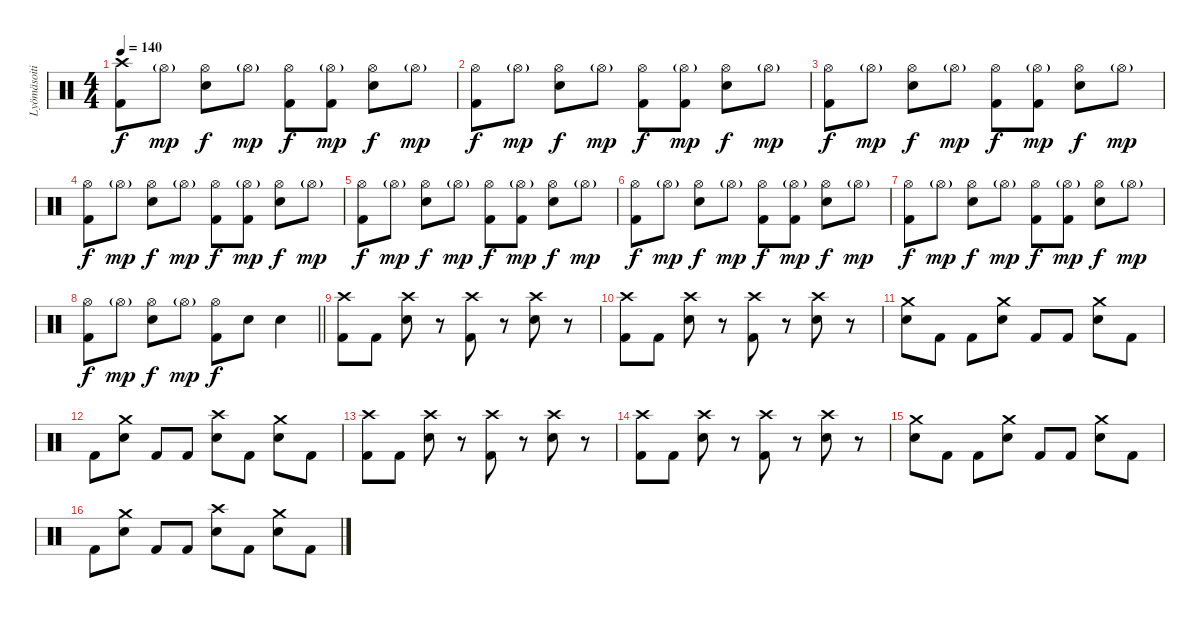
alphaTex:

\track ("Lyömäsoitin" "Lyömäsoiti") {instrument percussion}
\staff {score}
\articulation defaults
\ts (4 4)
\tempo 140
\clef neutral
\ks c
("Crash high (hit)" "Kick (hit) 2").8{dy f} "Hi-Hat (open)"{g}.8{dy mp} ("Hi-Hat (open)" "Electric Snare (hit)").8{dy f} "Hi-Hat (open)"{g}.8{dy mp} ("Hi-Hat (open)" "Kick (hit) 2").8{dy f} ("Hi-Hat (open)"{g} "Kick (hit) 2").8{dy mp} ("Hi-Hat (open)" "Electric Snare (hit)").8{dy f} "Hi-Hat (open)"{g}.8{dy mp} |
("Hi-Hat (open)" "Kick (hit) 2").8{dy f} "Hi-Hat (open)"{g}.8{dy mp} ("Hi-Hat (open)" "Electric Snare (hit)").8{dy f} "Hi-Hat (open)"{g}.8{dy mp} ("Hi-Hat (open)" "Kick (hit) 2").8{dy f} ("Hi-Hat (open)"{g} "Kick (hit) 2").8{dy mp} ("Hi-Hat (open)" "Electric Snare (hit)").8{dy f} "Hi-Hat (open)"{g}.8{dy mp} |
("Hi-Hat (open)" "Kick (hit) 2").8{dy f} "Hi-Hat (open)"{g}.8{dy mp} ("Hi-Hat (open)" "Electric Snare (hit)").8{dy f} "Hi-Hat (open)"{g}.8{dy mp} ("Hi-Hat (open)" "Kick (hit) 2").8{dy f} ("Hi-Hat (open)"{g} "Kick (hit) 2").8{dy mp} ("Hi-Hat (open)" "Electric Snare (hit)").8{dy f} "Hi-Hat (open)"{g}.8{dy mp} |
("Hi-Hat (open)" "Kick (hit) 2").8{dy f} "Hi-Hat (open)"{g}.8{dy mp} ("Hi-Hat (open)" "Electric Snare (hit)").8{dy f} "Hi-Hat (open)"{g}.8{dy mp} ("Hi-Hat (open)" "Kick (hit) 2").8{dy f} ("Hi-Hat (open)"{g} "Kick (hit) 2").8{dy mp} ("Hi-Hat (open)" "Electric Snare (hit)").8{dy f} "Hi-Hat (open)"{g}.8{dy mp} |
("Hi-Hat (open)" "Kick (hit) 2").8{dy f} "Hi-Hat (open)"{g}.8{dy mp} ("Hi-Hat (open)" "Electric Snare (hit)").8{dy f} "Hi-Hat (open)"{g}.8{dy mp} ("Hi-Hat (open)" "Kick (hit) 2").8{dy f} ("Hi-Hat (open)"{g} "Kick (hit) 2").8{dy mp} ("Hi-Hat (open)" "Electric Snare (hit)").8{dy f} "Hi-Hat (open)"{g}.8{dy mp} |
("Hi-Hat (open)" "Kick (hit) 2").8{dy f} "Hi-Hat (open)"{g}.8{dy mp} ("Hi-Hat (open)" "Electric Snare (hit)").8{dy f} "Hi-Hat (open)"{g}.8{dy mp} ("Hi-Hat (open)" "Kick (hit) 2").8{dy f} ("Hi-Hat (open)"{g} "Kick (hit) 2").8{dy mp} ("Hi-Hat (open)" "Electric Snare (hit)").8{dy f} "Hi-Hat (open)"{g}.8{dy mp} |
("Hi-Hat (open)" "Kick (hit) 2").8{dy f} "Hi-Hat (open)"{g}.8{dy mp} ("Hi-Hat (open)" "Electric Snare (hit)").8{dy f} "Hi-Hat (open)"{g}.8{dy mp} ("Hi-Hat (open)" "Kick (hit) 2").8{dy f} ("Hi-Hat (open)"{g} "Kick (hit) 2").8{dy mp} ("Hi-Hat (open)" "Electric Snare (hit)").8{dy f} "Hi-Hat (open)"{g}.8{dy mp} |
\barLineRight lightlight
("Hi-Hat (open)" "Kick (hit) 2").8{dy f} "Hi-Hat (open)"{g}.8{dy mp} ("Hi-Hat (open)" "Electric Snare (hit)").8{dy f} "Hi-Hat (open)"{g}.8{dy mp} ("Hi-Hat (open)" "Kick (hit) 2").8{dy f} "Electric Snare (hit)".8 "Electric Snare (hit)".4 |
("Crash high (hit)" "Kick (hit) 2").8 "Kick (hit) 2".8 ("Crash high (hit)" "Electric Snare (hit)").8 r.8 ("Crash high (hit)" "Kick (hit) 2").8 r.8 ("Crash high (hit)" "Electric Snare (hit)").8 r.8 |
("Crash high (hit)" "Kick (hit) 2").8 "Kick (hit) 2".8 ("Crash high (hit)" "Electric Snare (hit)").8 r.8 ("Crash high (hit)" "Kick (hit) 2").8 r.8 ("Crash high (hit)" "Electric Snare (hit)").8 r.8 |
("Crash medium (hit)" "Electric Snare (hit)").8 "Kick (hit) 2".8 "Kick (hit) 2".8 ("Crash medium (hit)" "Electric Snare (hit)").8 "Kick (hit) 2".8 "Kick (hit) 2".8 ("Crash medium (hit)" "Electric Snare (hit)").8 "Kick (hit) 2".8 |
"Kick (hit) 2".8 ("Crash medium (hit)" "Electric Snare (hit)").8 "Kick (hit) 2".8 "Kick (hit) 2".8 ("Crash high (hit)" "Electric Snare (hit)").8 "Kick (hit) 2".8 ("Crash medium (hit)" "Electric Snare (hit)").8 "Kick (hit) 2".8 |
("Crash high (hit)" "Kick (hit) 2").8 "Kick (hit) 2".8 ("Crash high (hit)" "Electric Snare (hit)").8 r.8 ("Crash high (hit)" "Kick (hit) 2").8 r.8 ("Crash high (hit)" "Electric Snare (hit)").8 r.8 |
("Crash high (hit)" "Kick (hit) 2").8 "Kick (hit) 2".8 ("Crash high (hit)" "Electric Snare (hit)").8 r.8 ("Crash high (hit)" "Kick (hit) 2").8 r.8 ("Crash high (hit)" "Electric Snare (hit)").8 r.8 |
("Crash medium (hit)" "Electric Snare (hit)").8 "Kick (hit) 2".8 "Kick (hit) 2".8 ("Crash medium (hit)" "Electric Snare (hit)").8 "Kick (hit) 2".8 "Kick (hit) 2".8 ("Crash medium (hit)" "Electric Snare (hit)").8 "Kick (hit) 2".8 |
"Kick (hit) 2".8 ("Crash medium (hit)" "Electric Snare (hit)").8 "Kick (hit) 2".8 "Kick (hit) 2".8 ("Crash high (hit)" "Electric Snare (hit)").8 "Kick (hit) 2".8 ("Crash medium (hit)" "Electric Snare (hit)").8 "Kick (hit) 2".8
